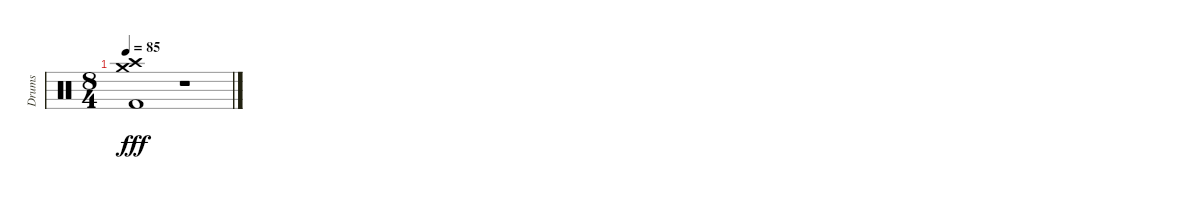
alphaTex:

\track ("Drums" "Drums") {instrument percussion}
\staff {score}
\articulation defaults
\ts (8 4)
\tempo 85
\clef neutral
\ks c
("Crash high (hit)" "Crash medium (hit)" "Kick (hit) 2").1{dy fff} r.1
